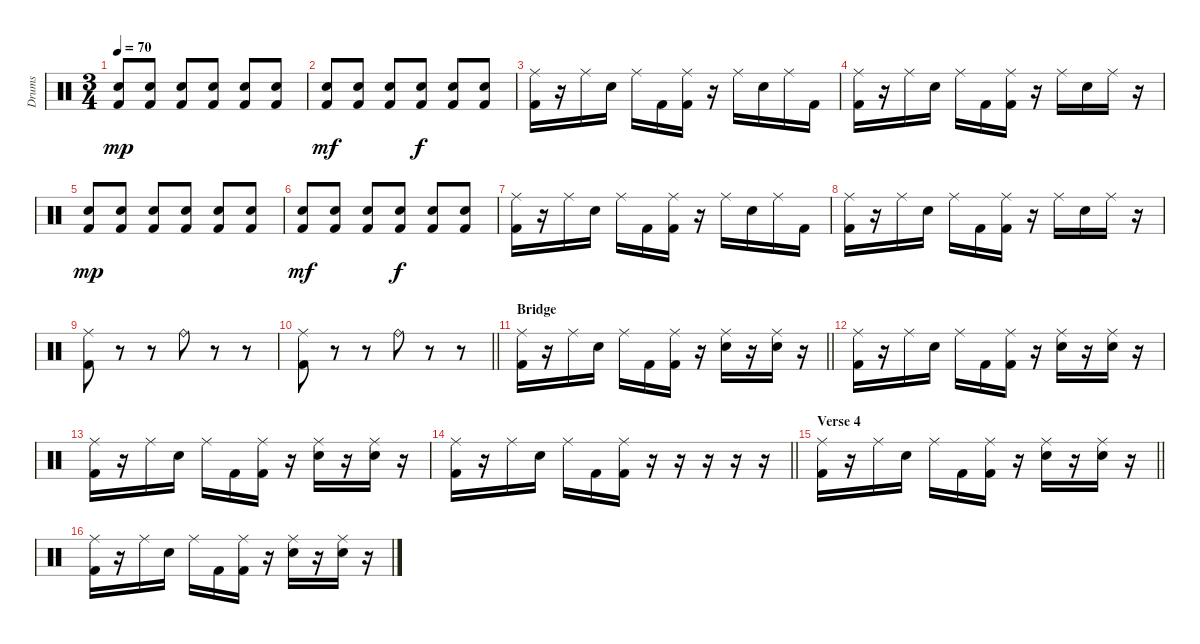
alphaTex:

\track ("Drums" "Drums") {instrument percussion}
\staff {score}
\articulation defaults
\ts (3 4)
\tempo 70
\clef neutral
\ks c
("Electric Snare (hit)" "Kick (hit) 2").8{dy mp} ("Electric Snare (hit)" "Kick (hit) 2").8 ("Electric Snare (hit)" "Kick (hit) 2").8 ("Electric Snare (hit)" "Kick (hit) 2").8 ("Electric Snare (hit)" "Kick (hit) 2").8 ("Electric Snare (hit)" "Kick (hit) 2").8 |
("Electric Snare (hit)" "Kick (hit) 2").8{dy mf} ("Electric Snare (hit)" "Kick (hit) 2").8 ("Electric Snare (hit)" "Kick (hit) 2").8 ("Electric Snare (hit)" "Kick (hit) 2").8{dy f} ("Electric Snare (hit)" "Kick (hit) 2").8 ("Electric Snare (hit)" "Kick (hit) 2").8 |
("Ride (middle)" "Kick (hit) 2").16 r.16 "Ride (middle)".16 "Electric Snare (hit)".16 "Ride (middle)".16 "Kick (hit) 2".16 ("Ride (middle)" "Kick (hit) 2").16 r.16 "Ride (middle)".16 "Electric Snare (hit)".16 "Ride (middle)".16 "Kick (hit) 2".16 |
("Ride (middle)" "Kick (hit) 2").16 r.16 "Ride (middle)".16 "Electric Snare (hit)".16 "Ride (middle)".16 "Kick (hit) 2".16 ("Ride (middle)" "Kick (hit) 2").16 r.16 "Ride (middle)".16 "Electric Snare (hit)".16 "Ride (middle)".16 r.16 |
("Electric Snare (hit)" "Kick (hit) 2").8{dy mp} ("Electric Snare (hit)" "Kick (hit) 2").8 ("Electric Snare (hit)" "Kick (hit) 2").8 ("Electric Snare (hit)" "Kick (hit) 2").8 ("Electric Snare (hit)" "Kick (hit) 2").8 ("Electric Snare (hit)" "Kick (hit) 2").8 |
("Electric Snare (hit)" "Kick (hit) 2").8{dy mf} ("Electric Snare (hit)" "Kick (hit) 2").8 ("Electric Snare (hit)" "Kick (hit) 2").8 ("Electric Snare (hit)" "Kick (hit) 2").8{dy f} ("Electric Snare (hit)" "Kick (hit) 2").8 ("Electric Snare (hit)" "Kick (hit) 2").8 |
("Ride (middle)" "Kick (hit) 2").16 r.16 "Ride (middle)".16 "Electric Snare (hit)".16 "Ride (middle)".16 "Kick (hit) 2".16 ("Ride (middle)" "Kick (hit) 2").16 r.16 "Ride (middle)".16 "Electric Snare (hit)".16 "Ride (middle)".16 "Kick (hit) 2".16 |
("Ride (middle)" "Kick (hit) 2").16 r.16 "Ride (middle)".16 "Electric Snare (hit)".16 "Ride (middle)".16 "Kick (hit) 2".16 ("Ride (middle)" "Kick (hit) 2").16 r.16 "Ride (middle)".16 "Electric Snare (hit)".16 "Ride (middle)".16 r.16 |
("Ride (middle)" "Kick (hit) 2").8 r.8 r.8 "Ride (bell)".8 r.8 r.8 |
\barLineRight lightlight
("Ride (middle)" "Kick (hit) 2").8 r.8 r.8 "Ride (bell)".8 r.8 r.8 |
\section ("" "Bridge")
\barLineRight lightlight
("Ride (middle)" "Kick (hit) 2").16 r.16 "Ride (middle)".16 "Electric Snare (hit)".16 "Ride (middle)".16 "Kick (hit) 2".16 ("Ride (middle)" "Kick (hit) 2").16 r.16 ("Ride (middle)" "Electric Snare (hit)").16 r.16 ("Ride (middle)" "Electric Snare (hit)").16 r.16 |
("Ride (middle)" "Kick (hit) 2").16 r.16 "Ride (middle)".16 "Electric Snare (hit)".16 "Ride (middle)".16 "Kick (hit) 2".16 ("Ride (middle)" "Kick (hit) 2").16 r.16 ("Ride (middle)" "Electric Snare (hit)").16 r.16 ("Ride (middle)" "Electric Snare (hit)").16 r.16 |
("Ride (middle)" "Kick (hit) 2").16 r.16 "Ride (middle)".16 "Electric Snare (hit)".16 "Ride (middle)".16 "Kick (hit) 2".16 ("Ride (middle)" "Kick (hit) 2").16 r.16 ("Ride (middle)" "Electric Snare (hit)").16 r.16 ("Ride (middle)" "Electric Snare (hit)").16 r.16 |
\barLineRight lightlight
("Ride (middle)" "Kick (hit) 2").16 r.16 "Ride (middle)".16 "Electric Snare (hit)".16 "Ride (middle)".16 "Kick (hit) 2".16 ("Ride (middle)" "Kick (hit) 2").16 r.16 r.16 r.16 r.16 r.16 |
\section ("" "Verse 4")
\barLineRight lightlight
("Ride (middle)" "Kick (hit) 2").16 r.16 "Ride (middle)".16 "Electric Snare (hit)".16 "Ride (middle)".16 "Kick (hit) 2".16 ("Ride (middle)" "Kick (hit) 2").16 r.16 ("Ride (middle)" "Electric Snare (hit)").16 r.16 ("Ride (middle)" "Electric Snare (hit)").16 r.16 |
("Ride (middle)" "Kick (hit) 2").16 r.16 "Ride (middle)".16 "Electric Snare (hit)".16 "Ride (middle)".16 "Kick (hit) 2".16 ("Ride (middle)" "Kick (hit) 2").16 r.16 ("Ride (middle)" "Electric Snare (hit)").16 r.16 ("Ride (middle)" "Electric Snare (hit)").16 r.16
